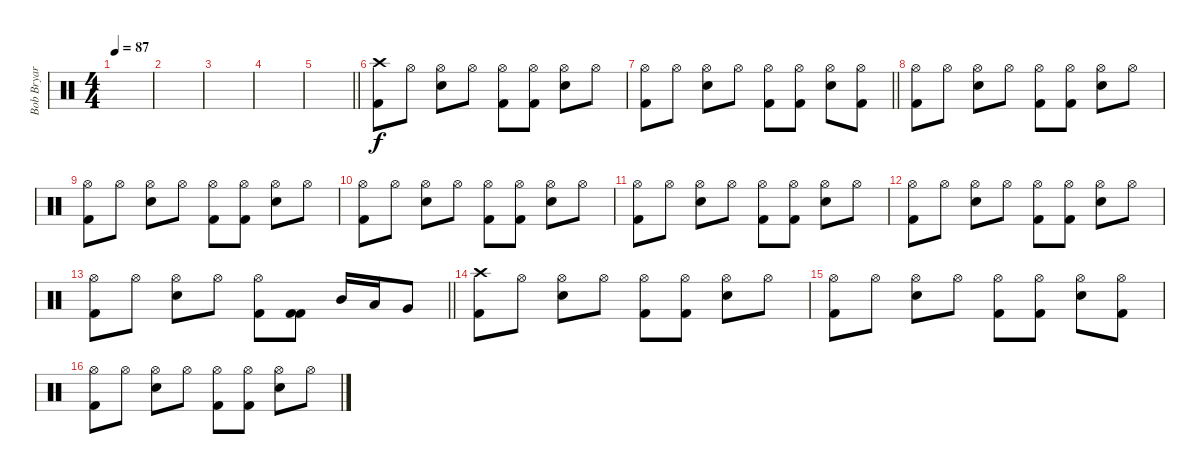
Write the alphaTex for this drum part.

\track ("Bob Bryar" "Bob Bryar") {instrument percussion}
\staff {score}
\articulation defaults
\ts (4 4)
\tempo 87
\clef neutral
\ks c
|
|
|
|
\barLineRight lightlight
|
("Crash high (hit)" "Kick (hit) 2").8 "Hi-Hat (open)".8 ("Hi-Hat (open)" "Electric Snare (hit)").8 "Hi-Hat (open)".8 ("Hi-Hat (open)" "Kick (hit) 2").8 ("Hi-Hat (open)" "Kick (hit) 2").8 ("Hi-Hat (open)" "Electric Snare (hit)").8 "Hi-Hat (open)".8 |
\barLineRight lightlight
("Hi-Hat (open)" "Kick (hit) 2").8 "Hi-Hat (open)".8 ("Hi-Hat (open)" "Electric Snare (hit)").8 "Hi-Hat (open)".8 ("Hi-Hat (open)" "Kick (hit) 2").8 ("Hi-Hat (open)" "Kick (hit) 2").8 ("Hi-Hat (open)" "Electric Snare (hit)").8 ("Hi-Hat (open)" "Kick (hit) 2").8 |
("Hi-Hat (open)" "Kick (hit) 2").8 "Hi-Hat (open)".8 ("Hi-Hat (open)" "Electric Snare (hit)").8 "Hi-Hat (open)".8 ("Hi-Hat (open)" "Kick (hit) 2").8 ("Hi-Hat (open)" "Kick (hit) 2").8 ("Hi-Hat (open)" "Electric Snare (hit)").8 "Hi-Hat (open)".8 |
("Hi-Hat (open)" "Kick (hit) 2").8 "Hi-Hat (open)".8 ("Hi-Hat (open)" "Electric Snare (hit)").8 "Hi-Hat (open)".8 ("Hi-Hat (open)" "Kick (hit) 2").8 ("Hi-Hat (open)" "Kick (hit) 2").8 ("Hi-Hat (open)" "Electric Snare (hit)").8 "Hi-Hat (open)".8 |
("Hi-Hat (open)" "Kick (hit) 2").8 "Hi-Hat (open)".8 ("Hi-Hat (open)" "Electric Snare (hit)").8 "Hi-Hat (open)".8 ("Hi-Hat (open)" "Kick (hit) 2").8 ("Hi-Hat (open)" "Kick (hit) 2").8 ("Hi-Hat (open)" "Electric Snare (hit)").8 "Hi-Hat (open)".8 |
("Hi-Hat (open)" "Kick (hit) 2").8 "Hi-Hat (open)".8 ("Hi-Hat (open)" "Electric Snare (hit)").8 "Hi-Hat (open)".8 ("Hi-Hat (open)" "Kick (hit) 2").8 ("Hi-Hat (open)" "Kick (hit) 2").8 ("Hi-Hat (open)" "Electric Snare (hit)").8 "Hi-Hat (open)".8 |
("Hi-Hat (open)" "Kick (hit) 2").8 "Hi-Hat (open)".8 ("Hi-Hat (open)" "Electric Snare (hit)").8 "Hi-Hat (open)".8 ("Hi-Hat (open)" "Kick (hit) 2").8 ("Hi-Hat (open)" "Kick (hit) 2").8 ("Hi-Hat (open)" "Electric Snare (hit)").8 "Hi-Hat (open)".8 |
\barLineRight lightlight
("Hi-Hat (open)" "Kick (hit) 2").8 "Hi-Hat (open)".8 ("Hi-Hat (open)" "Electric Snare (hit)").8 "Hi-Hat (open)".8 ("Hi-Hat (open)" "Kick (hit) 2").8 ("Kick (hit) 2" "Kick (hit) 2").8 "Mid Tom (hit)".16 "Low Tom (hit)".16 "Very Low Tom (hit)".8 |
("Crash high (hit)" "Kick (hit) 2").8 "Hi-Hat (open)".8 ("Hi-Hat (open)" "Electric Snare (hit)").8 "Hi-Hat (open)".8 ("Hi-Hat (open)" "Kick (hit) 2").8 ("Hi-Hat (open)" "Kick (hit) 2").8 ("Hi-Hat (open)" "Electric Snare (hit)").8 "Hi-Hat (open)".8 |
("Hi-Hat (open)" "Kick (hit) 2").8 "Hi-Hat (open)".8 ("Hi-Hat (open)" "Electric Snare (hit)").8 "Hi-Hat (open)".8 ("Hi-Hat (open)" "Kick (hit) 2").8 ("Hi-Hat (open)" "Kick (hit) 2").8 ("Hi-Hat (open)" "Electric Snare (hit)").8 ("Hi-Hat (open)" "Kick (hit) 2").8 |
("Hi-Hat (open)" "Kick (hit) 2").8 "Hi-Hat (open)".8 ("Hi-Hat (open)" "Electric Snare (hit)").8 "Hi-Hat (open)".8 ("Hi-Hat (open)" "Kick (hit) 2").8 ("Hi-Hat (open)" "Kick (hit) 2").8 ("Hi-Hat (open)" "Electric Snare (hit)").8 "Hi-Hat (open)".8
